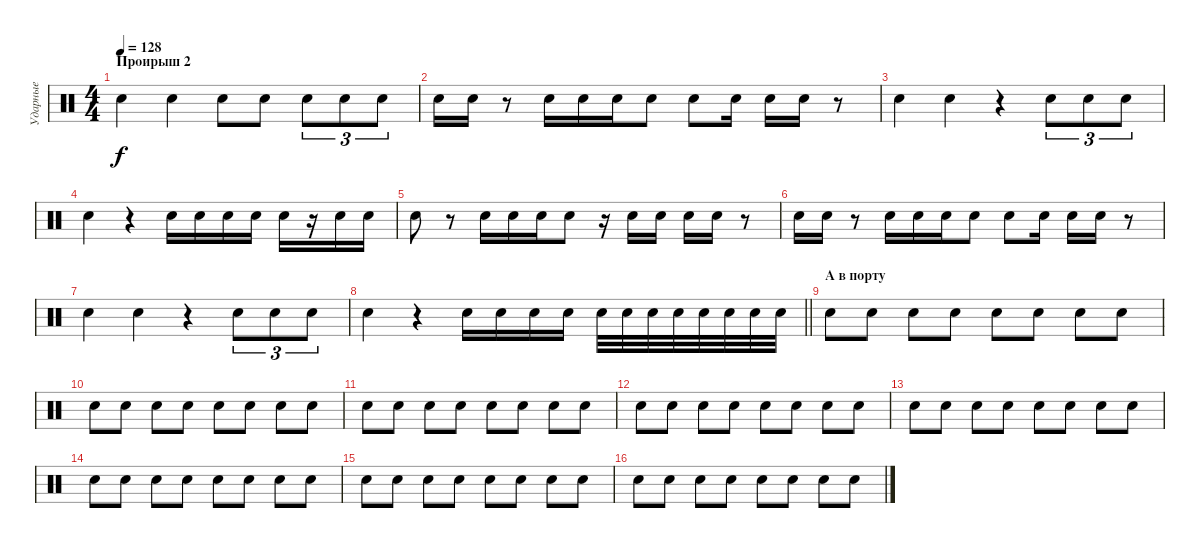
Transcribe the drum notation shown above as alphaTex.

\track ("Ударные" "Ударные") {instrument percussion}
\staff {score}
\articulation defaults
\ts (4 4)
\section ("" "Проирыш 2")
\tempo 128
\clef neutral
\ks c "Electric Snare (hit)".4{dy f} "Electric Snare (hit)".4 "Electric Snare (hit)".8 "Electric Snare (hit)".8 "Electric Snare (hit)".8{tu (3 2)} "Electric Snare (hit)".8{tu (3 2)} "Electric Snare (hit)".8{tu (3 2)}
|
"Electric Snare (hit)".16 "Electric Snare (hit)".16 r.8 "Electric Snare (hit)".16 "Electric Snare (hit)".16 "Electric Snare (hit)".16 "Electric Snare (hit)".8 "Electric Snare (hit)".8 "Electric Snare (hit)".16 "Electric Snare (hit)".16 "Electric Snare (hit)".16 r.8 |
"Electric Snare (hit)".4 "Electric Snare (hit)".4 r.4 "Electric Snare (hit)".8{tu (3 2)} "Electric Snare (hit)".8{tu (3 2)} "Electric Snare (hit)".8{tu (3 2)} |
"Electric Snare (hit)".4 r.4 "Electric Snare (hit)".16 "Electric Snare (hit)".16 "Electric Snare (hit)".16 "Electric Snare (hit)".16 "Electric Snare (hit)".16 r.16 "Electric Snare (hit)".16 "Electric Snare (hit)".16 |
"Electric Snare (hit)".8 r.8 "Electric Snare (hit)".16 "Electric Snare (hit)".16 "Electric Snare (hit)".16 "Electric Snare (hit)".8 r.16 "Electric Snare (hit)".16 "Electric Snare (hit)".16 "Electric Snare (hit)".16 "Electric Snare (hit)".16 r.8 |
"Electric Snare (hit)".16 "Electric Snare (hit)".16 r.8 "Electric Snare (hit)".16 "Electric Snare (hit)".16 "Electric Snare (hit)".16 "Electric Snare (hit)".8 "Electric Snare (hit)".8 "Electric Snare (hit)".16 "Electric Snare (hit)".16 "Electric Snare (hit)".16 r.8 |
"Electric Snare (hit)".4 "Electric Snare (hit)".4 r.4 "Electric Snare (hit)".8{tu (3 2)} "Electric Snare (hit)".8{tu (3 2)} "Electric Snare (hit)".8{tu (3 2)} |
\barLineRight lightlight "Electric Snare (hit)".4
r.4 "Electric Snare (hit)".16 "Electric Snare (hit)".16 "Electric Snare (hit)".16 "Electric Snare (hit)".16 "Electric Snare (hit)".32 "Electric Snare (hit)".32 "Electric Snare (hit)".32 "Electric Snare (hit)".32 "Electric Snare (hit)".32 "Electric Snare (hit)".32 "Electric Snare (hit)".32 "Electric Snare (hit)".32 |
\section ("" "А в порту")
"Electric Snare (hit)".8 "Electric Snare (hit)".8 "Electric Snare (hit)".8 "Electric Snare (hit)".8 "Electric Snare (hit)".8 "Electric Snare (hit)".8 "Electric Snare (hit)".8 "Electric Snare (hit)".8 |
"Electric Snare (hit)".8 "Electric Snare (hit)".8 "Electric Snare (hit)".8 "Electric Snare (hit)".8 "Electric Snare (hit)".8 "Electric Snare (hit)".8 "Electric Snare (hit)".8 "Electric Snare (hit)".8 |
"Electric Snare (hit)".8 "Electric Snare (hit)".8 "Electric Snare (hit)".8 "Electric Snare (hit)".8 "Electric Snare (hit)".8 "Electric Snare (hit)".8 "Electric Snare (hit)".8 "Electric Snare (hit)".8 |
"Electric Snare (hit)".8 "Electric Snare (hit)".8 "Electric Snare (hit)".8 "Electric Snare (hit)".8 "Electric Snare (hit)".8 "Electric Snare (hit)".8 "Electric Snare (hit)".8 "Electric Snare (hit)".8 |
"Electric Snare (hit)".8 "Electric Snare (hit)".8 "Electric Snare (hit)".8 "Electric Snare (hit)".8 "Electric Snare (hit)".8 "Electric Snare (hit)".8 "Electric Snare (hit)".8 "Electric Snare (hit)".8 |
"Electric Snare (hit)".8 "Electric Snare (hit)".8 "Electric Snare (hit)".8 "Electric Snare (hit)".8 "Electric Snare (hit)".8 "Electric Snare (hit)".8 "Electric Snare (hit)".8 "Electric Snare (hit)".8 |
"Electric Snare (hit)".8 "Electric Snare (hit)".8 "Electric Snare (hit)".8 "Electric Snare (hit)".8 "Electric Snare (hit)".8 "Electric Snare (hit)".8 "Electric Snare (hit)".8 "Electric Snare (hit)".8 |
"Electric Snare (hit)".8 "Electric Snare (hit)".8 "Electric Snare (hit)".8 "Electric Snare (hit)".8 "Electric Snare (hit)".8 "Electric Snare (hit)".8 "Electric Snare (hit)".8 "Electric Snare (hit)".8
